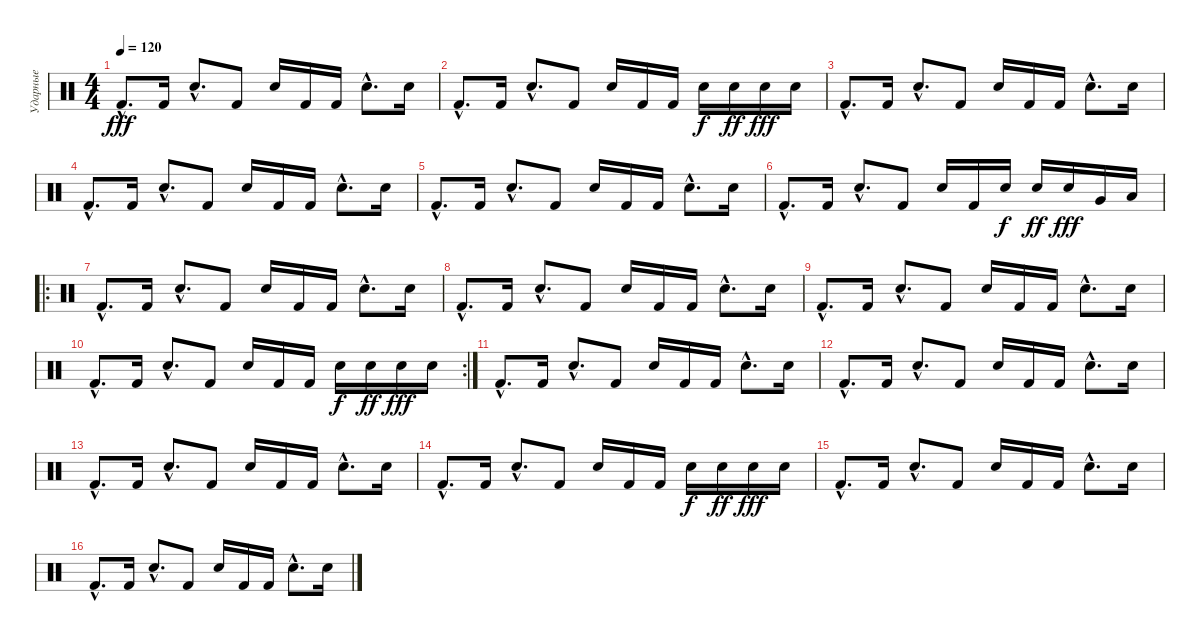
\track ("Ударные" "Ударные") {instrument percussion}
\staff {score}
\articulation defaults
\ts (4 4)
\tempo 120
\clef neutral
\ks c "Kick (hit) 2"{hac}.8{d dy fff volume 16} "Kick (hit) 2".16 "Electric Snare (hit)"{hac}.8{d} "Kick (hit) 2".8 "Electric Snare (hit)".16 "Kick (hit) 2".16 "Kick (hit) 2".16 "Electric Snare (hit)"{hac}.8{d} "Electric Snare (hit)".16
|
"Kick (hit) 2"{hac}.8{d volume 16} "Kick (hit) 2".16 "Electric Snare (hit)"{hac}.8{d} "Kick (hit) 2".8 "Electric Snare (hit)".16 "Kick (hit) 2".16 "Kick (hit) 2".16 "Electric Snare (hit)".16{dy f} "Electric Snare (hit)".16{dy ff} "Electric Snare (hit)".16{dy fff} "Electric Snare (hit)".16 |
"Kick (hit) 2"{hac}.8{d volume 16} "Kick (hit) 2".16 "Electric Snare (hit)"{hac}.8{d} "Kick (hit) 2".8 "Electric Snare (hit)".16 "Kick (hit) 2".16 "Kick (hit) 2".16 "Electric Snare (hit)"{hac}.8{d} "Electric Snare (hit)".16 |
"Kick (hit) 2"{hac}.8{d volume 16} "Kick (hit) 2".16 "Electric Snare (hit)"{hac}.8{d} "Kick (hit) 2".8 "Electric Snare (hit)".16 "Kick (hit) 2".16 "Kick (hit) 2".16 "Electric Snare (hit)"{hac}.8{d} "Electric Snare (hit)".16 |
"Kick (hit) 2"{hac}.8{d volume 16} "Kick (hit) 2".16 "Electric Snare (hit)"{hac}.8{d} "Kick (hit) 2".8 "Electric Snare (hit)".16 "Kick (hit) 2".16 "Kick (hit) 2".16 "Electric Snare (hit)"{hac}.8{d} "Electric Snare (hit)".16 |
"Kick (hit) 2"{hac}.8{d volume 16} "Kick (hit) 2".16 "Electric Snare (hit)"{hac}.8{d} "Kick (hit) 2".8 "Electric Snare (hit)".16 "Kick (hit) 2".16 "Electric Snare (hit)".16{dy f} "Electric Snare (hit)".16{dy ff} "Electric Snare (hit)".16{dy fff} "Very Low Tom (hit)".16 "Low Floor Tom (hit)".16 |
\ro "Kick (hit) 2"{hac}.8{d volume 16} "Kick (hit) 2".16 "Electric Snare (hit)"{hac}.8{d} "Kick (hit) 2".8 "Electric Snare (hit)".16 "Kick (hit) 2".16 "Kick (hit) 2".16 "Electric Snare (hit)"{hac}.8{d} "Electric Snare (hit)".16
|
"Kick (hit) 2"{hac}.8{d volume 16} "Kick (hit) 2".16 "Electric Snare (hit)"{hac}.8{d} "Kick (hit) 2".8 "Electric Snare (hit)".16 "Kick (hit) 2".16 "Kick (hit) 2".16 "Electric Snare (hit)"{hac}.8{d} "Electric Snare (hit)".16 |
"Kick (hit) 2"{hac}.8{d volume 16} "Kick (hit) 2".16 "Electric Snare (hit)"{hac}.8{d} "Kick (hit) 2".8 "Electric Snare (hit)".16 "Kick (hit) 2".16 "Kick (hit) 2".16 "Electric Snare (hit)"{hac}.8{d} "Electric Snare (hit)".16 |
\rc 2 "Kick (hit) 2"{hac}.8{d volume 16} "Kick (hit) 2".16 "Electric Snare (hit)"{hac}.8{d} "Kick (hit) 2".8 "Electric Snare (hit)".16 "Kick (hit) 2".16 "Kick (hit) 2".16 "Electric Snare (hit)".16{dy f} "Electric Snare (hit)".16{dy ff} "Electric Snare (hit)".16{dy fff} "Electric Snare (hit)".16
|
"Kick (hit) 2"{hac}.8{d volume 16} "Kick (hit) 2".16 "Electric Snare (hit)"{hac}.8{d} "Kick (hit) 2".8 "Electric Snare (hit)".16 "Kick (hit) 2".16 "Kick (hit) 2".16 "Electric Snare (hit)"{hac}.8{d} "Electric Snare (hit)".16 |
"Kick (hit) 2"{hac}.8{d volume 16} "Kick (hit) 2".16 "Electric Snare (hit)"{hac}.8{d} "Kick (hit) 2".8 "Electric Snare (hit)".16 "Kick (hit) 2".16 "Kick (hit) 2".16 "Electric Snare (hit)"{hac}.8{d} "Electric Snare (hit)".16 |
"Kick (hit) 2"{hac}.8{d volume 16} "Kick (hit) 2".16 "Electric Snare (hit)"{hac}.8{d} "Kick (hit) 2".8 "Electric Snare (hit)".16 "Kick (hit) 2".16 "Kick (hit) 2".16 "Electric Snare (hit)"{hac}.8{d} "Electric Snare (hit)".16 |
"Kick (hit) 2"{hac}.8{d volume 16} "Kick (hit) 2".16 "Electric Snare (hit)"{hac}.8{d} "Kick (hit) 2".8 "Electric Snare (hit)".16 "Kick (hit) 2".16 "Kick (hit) 2".16 "Electric Snare (hit)".16{dy f} "Electric Snare (hit)".16{dy ff} "Electric Snare (hit)".16{dy fff} "Electric Snare (hit)".16 |
"Kick (hit) 2"{hac}.8{d volume 16} "Kick (hit) 2".16 "Electric Snare (hit)"{hac}.8{d} "Kick (hit) 2".8 "Electric Snare (hit)".16 "Kick (hit) 2".16 "Kick (hit) 2".16 "Electric Snare (hit)"{hac}.8{d} "Electric Snare (hit)".16 |
"Kick (hit) 2"{hac}.8{d volume 16} "Kick (hit) 2".16 "Electric Snare (hit)"{hac}.8{d} "Kick (hit) 2".8 "Electric Snare (hit)".16 "Kick (hit) 2".16 "Kick (hit) 2".16 "Electric Snare (hit)"{hac}.8{d} "Electric Snare (hit)".16
